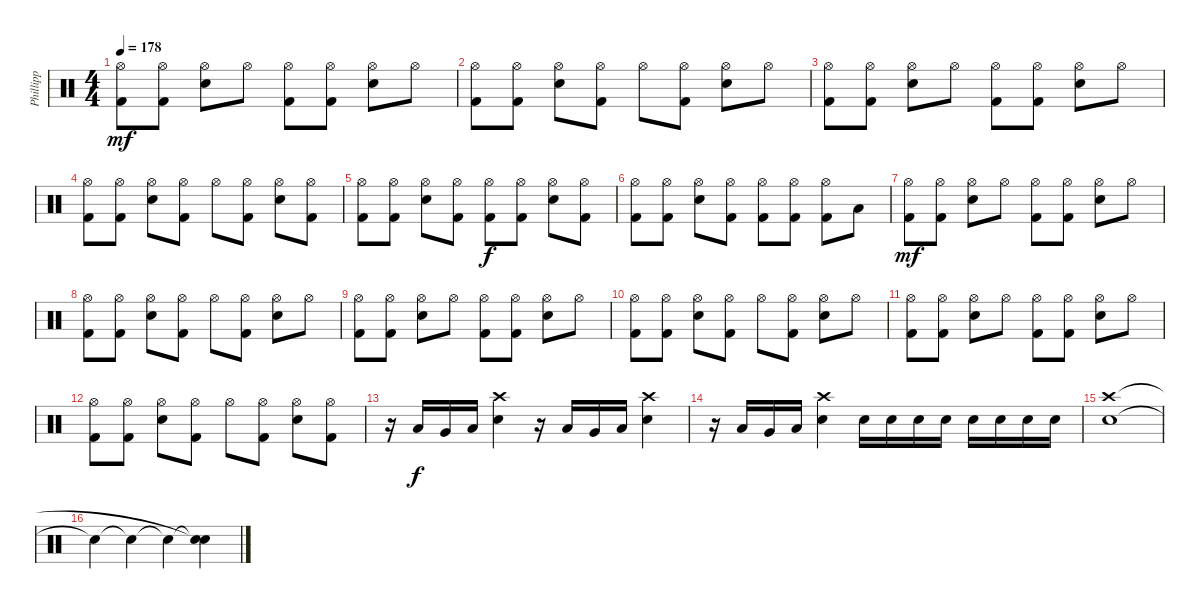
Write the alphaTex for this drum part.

\track ("Phillipp" "Phillipp") {instrument percussion}
\staff {score}
\articulation defaults
\ts (4 4)
\tempo 178
\clef neutral
\ks c
("Hi-Hat (open)" "Kick (hit) 2").8{dy mf} ("Hi-Hat (open)" "Kick (hit) 2").8 ("Hi-Hat (open)" "Electric Snare (hit)").8 "Hi-Hat (open)".8 ("Hi-Hat (open)" "Kick (hit) 2").8 ("Hi-Hat (open)" "Kick (hit) 2").8 ("Hi-Hat (open)" "Electric Snare (hit)").8 "Hi-Hat (open)".8 |
("Hi-Hat (open)" "Kick (hit) 2").8 ("Hi-Hat (open)" "Kick (hit) 2").8 ("Hi-Hat (open)" "Electric Snare (hit)").8 ("Hi-Hat (open)" "Kick (hit) 2").8 "Hi-Hat (open)".8 ("Hi-Hat (open)" "Kick (hit) 2").8 ("Hi-Hat (open)" "Electric Snare (hit)").8 "Hi-Hat (open)".8 |
("Hi-Hat (open)" "Kick (hit) 2").8 ("Hi-Hat (open)" "Kick (hit) 2").8 ("Hi-Hat (open)" "Electric Snare (hit)").8 "Hi-Hat (open)".8 ("Hi-Hat (open)" "Kick (hit) 2").8 ("Hi-Hat (open)" "Kick (hit) 2").8 ("Hi-Hat (open)" "Electric Snare (hit)").8 "Hi-Hat (open)".8 |
("Hi-Hat (open)" "Kick (hit) 2").8 ("Hi-Hat (open)" "Kick (hit) 2").8 ("Hi-Hat (open)" "Electric Snare (hit)").8 ("Hi-Hat (open)" "Kick (hit) 2").8 "Hi-Hat (open)".8 ("Hi-Hat (open)" "Kick (hit) 2").8 ("Hi-Hat (open)" "Electric Snare (hit)").8 ("Hi-Hat (open)" "Kick (hit) 2").8 |
("Hi-Hat (open)" "Kick (hit) 2").8 ("Hi-Hat (open)" "Kick (hit) 2").8 ("Hi-Hat (open)" "Electric Snare (hit)").8 ("Hi-Hat (open)" "Kick (hit) 2").8 ("Hi-Hat (open)" "Kick (hit) 2").8{dy f} ("Hi-Hat (open)" "Kick (hit) 2").8 ("Hi-Hat (open)" "Electric Snare (hit)").8 ("Hi-Hat (open)" "Kick (hit) 2").8 |
("Hi-Hat (open)" "Kick (hit) 2").8 ("Hi-Hat (open)" "Kick (hit) 2").8 ("Hi-Hat (open)" "Electric Snare (hit)").8 ("Hi-Hat (open)" "Kick (hit) 2").8 ("Hi-Hat (open)" "Kick (hit) 2").8 ("Hi-Hat (open)" "Kick (hit) 2").8 ("Hi-Hat (open)" "Kick (hit) 2").8 "Low Tom (hit)".8 |
("Hi-Hat (open)" "Kick (hit) 2").8{dy mf} ("Hi-Hat (open)" "Kick (hit) 2").8 ("Hi-Hat (open)" "Electric Snare (hit)").8 "Hi-Hat (open)".8 ("Hi-Hat (open)" "Kick (hit) 2").8 ("Hi-Hat (open)" "Kick (hit) 2").8 ("Hi-Hat (open)" "Electric Snare (hit)").8 "Hi-Hat (open)".8 |
("Hi-Hat (open)" "Kick (hit) 2").8 ("Hi-Hat (open)" "Kick (hit) 2").8 ("Hi-Hat (open)" "Electric Snare (hit)").8 ("Hi-Hat (open)" "Kick (hit) 2").8 "Hi-Hat (open)".8 ("Hi-Hat (open)" "Kick (hit) 2").8 ("Hi-Hat (open)" "Electric Snare (hit)").8 "Hi-Hat (open)".8 |
("Hi-Hat (open)" "Kick (hit) 2").8 ("Hi-Hat (open)" "Kick (hit) 2").8 ("Hi-Hat (open)" "Electric Snare (hit)").8 "Hi-Hat (open)".8 ("Hi-Hat (open)" "Kick (hit) 2").8 ("Hi-Hat (open)" "Kick (hit) 2").8 ("Hi-Hat (open)" "Electric Snare (hit)").8 "Hi-Hat (open)".8 |
("Hi-Hat (open)" "Kick (hit) 2").8 ("Hi-Hat (open)" "Kick (hit) 2").8 ("Hi-Hat (open)" "Electric Snare (hit)").8 ("Hi-Hat (open)" "Kick (hit) 2").8 "Hi-Hat (open)".8 ("Hi-Hat (open)" "Kick (hit) 2").8 ("Hi-Hat (open)" "Electric Snare (hit)").8 "Hi-Hat (open)".8 |
("Hi-Hat (open)" "Kick (hit) 2").8 ("Hi-Hat (open)" "Kick (hit) 2").8 ("Hi-Hat (open)" "Electric Snare (hit)").8 "Hi-Hat (open)".8 ("Hi-Hat (open)" "Kick (hit) 2").8 ("Hi-Hat (open)" "Kick (hit) 2").8 ("Hi-Hat (open)" "Electric Snare (hit)").8 "Hi-Hat (open)".8 |
("Hi-Hat (open)" "Kick (hit) 2").8 ("Hi-Hat (open)" "Kick (hit) 2").8 ("Hi-Hat (open)" "Electric Snare (hit)").8 ("Hi-Hat (open)" "Kick (hit) 2").8 "Hi-Hat (open)".8 ("Hi-Hat (open)" "Kick (hit) 2").8 ("Hi-Hat (open)" "Electric Snare (hit)").8 ("Hi-Hat (open)" "Kick (hit) 2").8 |
r.16 "Low Tom (hit)".16{dy f} "Very Low Tom (hit)".16 "Low Tom (hit)".16 ("Electric Snare (hit)" "Crash high (hit)").4 r.16 "Low Tom (hit)".16 "Very Low Tom (hit)".16 "Low Tom (hit)".16 ("Electric Snare (hit)" "Crash high (hit)").4 |
r.16 "Low Tom (hit)".16 "Very Low Tom (hit)".16 "Low Tom (hit)".16 ("Electric Snare (hit)" "Crash high (hit)").4 "Electric Snare (hit)".16 "Electric Snare (hit)".16 "Electric Snare (hit)".16 "Electric Snare (hit)".16 "Electric Snare (hit)".16 "Electric Snare (hit)".16 "Electric Snare (hit)".16 "Electric Snare (hit)".16 |
("Electric Snare (hit)" "Crash high (hit)").1 |
"Snare (hit)"{t}.4 "Snare (hit)"{t}.4 "Snare (hit)"{t}.4 ("Snare (hit)"{t} "Snare (hit)"{t}).4
